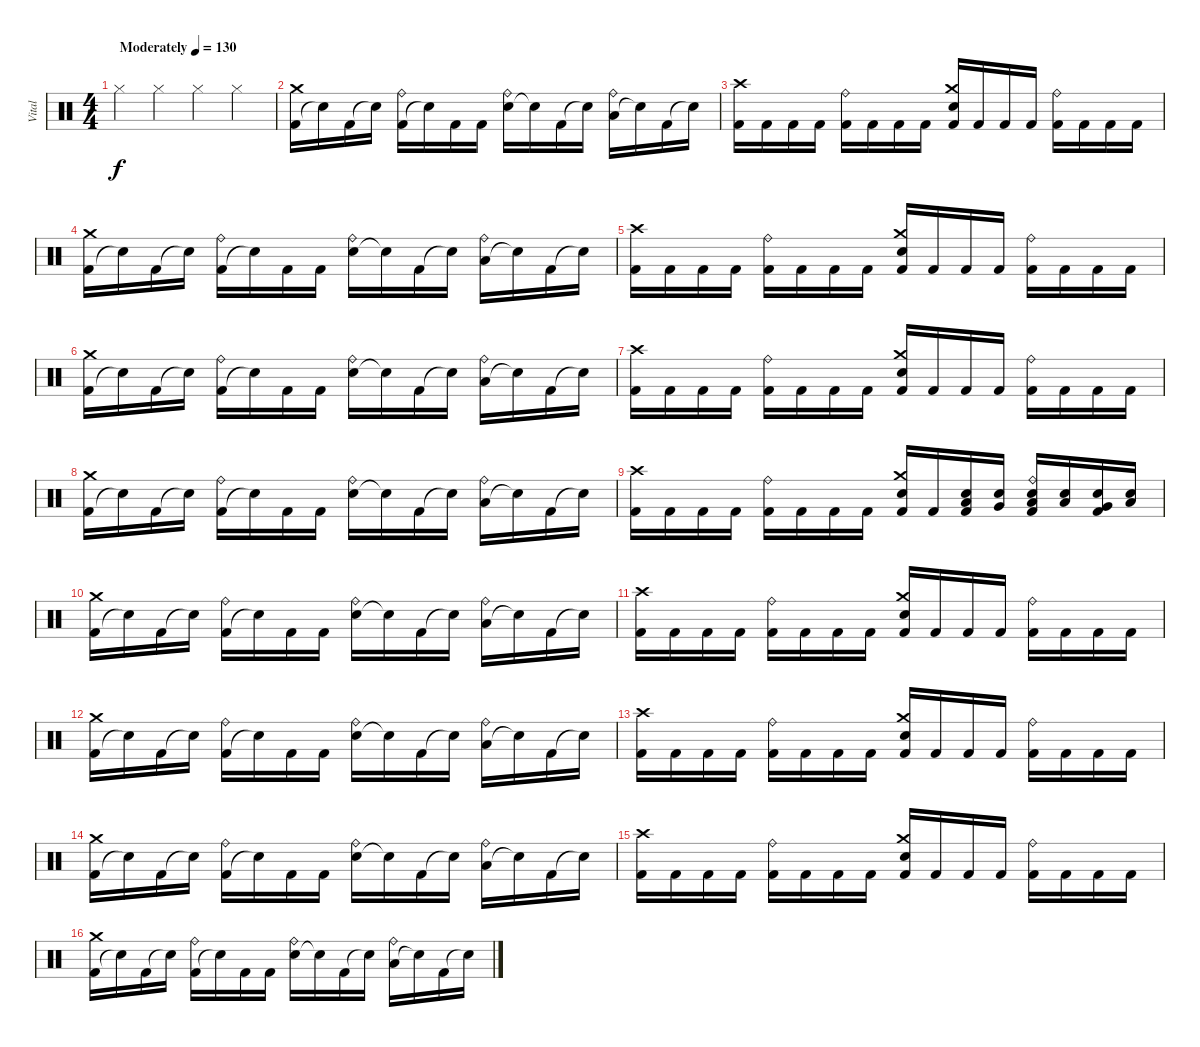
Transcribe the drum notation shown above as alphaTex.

\track ("Vital" "Vital") {instrument percussion}
\staff {score}
\articulation defaults
\ts (4 4)
\tempo (130 "Moderately")
\clef neutral
\ks c "Hi-Hat (closed)".4{dy f} "Hi-Hat (closed)".4 "Hi-Hat (closed)".4 "Hi-Hat (closed)".4
|
("Kick (hit) 2" "Crash medium (hit)").16 "Snare (hit)"{t}.16 "Kick (hit) 2".16 "Snare (hit)"{t}.16 ("Kick (hit) 2" "Ride (bell)").16 "Snare (hit)"{t}.16 "Kick (hit) 2".16 "Kick (hit) 2".16 ("Snare (hit) 2" "Ride (bell)").16 "Snare (hit)"{t}.16 "Kick (hit) 2".16 "Snare (hit)"{t}.16 ("Low Floor Tom (hit)" "Ride (bell)").16 "Snare (hit)"{t}.16 "Kick (hit) 2".16 "Snare (hit)"{t}.16 |
("Kick (hit) 2" "Crash high (hit)").16 "Kick (hit) 2".16 "Kick (hit) 2".16 "Kick (hit) 2".16 ("Kick (hit) 2" "Ride (bell)").16 "Kick (hit) 2".16 "Kick (hit) 2".16 "Kick (hit) 2".16 ("Kick (hit) 2" "Snare (hit) 2" "Crash medium (hit)").16 "Kick (hit) 2".16 "Kick (hit) 2".16 "Kick (hit) 2".16 ("Kick (hit) 2" "Ride (bell)").16 "Kick (hit) 2".16 "Kick (hit) 2".16 "Kick (hit) 2".16 |
("Kick (hit) 2" "Crash medium (hit)").16 "Snare (hit)"{t}.16 "Kick (hit) 2".16 "Snare (hit)"{t}.16 ("Kick (hit) 2" "Ride (bell)").16 "Snare (hit)"{t}.16 "Kick (hit) 2".16 "Kick (hit) 2".16 ("Snare (hit) 2" "Ride (bell)").16 "Snare (hit)"{t}.16 "Kick (hit) 2".16 "Snare (hit)"{t}.16 ("Low Floor Tom (hit)" "Ride (bell)").16 "Snare (hit)"{t}.16 "Kick (hit) 2".16 "Snare (hit)"{t}.16 |
("Kick (hit) 2" "Crash high (hit)").16 "Kick (hit) 2".16 "Kick (hit) 2".16 "Kick (hit) 2".16 ("Kick (hit) 2" "Ride (bell)").16 "Kick (hit) 2".16 "Kick (hit) 2".16 "Kick (hit) 2".16 ("Kick (hit) 2" "Snare (hit) 2" "Crash medium (hit)").16 "Kick (hit) 2".16 "Kick (hit) 2".16 "Kick (hit) 2".16 ("Kick (hit) 2" "Ride (bell)").16 "Kick (hit) 2".16 "Kick (hit) 2".16 "Kick (hit) 2".16 |
("Kick (hit) 2" "Crash medium (hit)").16 "Snare (hit)"{t}.16 "Kick (hit) 2".16 "Snare (hit)"{t}.16 ("Kick (hit) 2" "Ride (bell)").16 "Snare (hit)"{t}.16 "Kick (hit) 2".16 "Kick (hit) 2".16 ("Snare (hit) 2" "Ride (bell)").16 "Snare (hit)"{t}.16 "Kick (hit) 2".16 "Snare (hit)"{t}.16 ("Low Floor Tom (hit)" "Ride (bell)").16 "Snare (hit)"{t}.16 "Kick (hit) 2".16 "Snare (hit)"{t}.16 |
("Kick (hit) 2" "Crash high (hit)").16 "Kick (hit) 2".16 "Kick (hit) 2".16 "Kick (hit) 2".16 ("Kick (hit) 2" "Ride (bell)").16 "Kick (hit) 2".16 "Kick (hit) 2".16 "Kick (hit) 2".16 ("Kick (hit) 2" "Snare (hit) 2" "Crash medium (hit)").16 "Kick (hit) 2".16 "Kick (hit) 2".16 "Kick (hit) 2".16 ("Kick (hit) 2" "Ride (bell)").16 "Kick (hit) 2".16 "Kick (hit) 2".16 "Kick (hit) 2".16 |
("Kick (hit) 2" "Crash medium (hit)").16 "Snare (hit)"{t}.16 "Kick (hit) 2".16 "Snare (hit)"{t}.16 ("Kick (hit) 2" "Ride (bell)").16 "Snare (hit)"{t}.16 "Kick (hit) 2".16 "Kick (hit) 2".16 ("Snare (hit) 2" "Ride (bell)").16 "Snare (hit)"{t}.16 "Kick (hit) 2".16 "Snare (hit)"{t}.16 ("Low Floor Tom (hit)" "Ride (bell)").16 "Snare (hit)"{t}.16 "Kick (hit) 2".16 "Snare (hit)"{t}.16 |
("Kick (hit) 2" "Crash high (hit)").16 "Kick (hit) 2".16 "Kick (hit) 2".16 "Kick (hit) 2".16 ("Kick (hit) 2" "Ride (bell)").16 "Kick (hit) 2".16 "Kick (hit) 2".16 "Kick (hit) 2".16 ("Kick (hit) 2" "Snare (hit) 2" "Crash medium (hit)").16 "Kick (hit) 2".16 ("Low Tom (hit)" "Kick (hit) 2" "Snare (hit) 2").16 ("Very Low Tom (hit)" "Snare (hit) 2").16 ("Low Tom (hit)" "Kick (hit) 2" "Snare (hit) 2" "Ride (bell)").16 ("Low Floor Tom (hit)" "Snare (hit) 2").16 ("Very Low Tom (hit)" "Kick (hit) 2" "Snare (hit) 2").16 ("Low Floor Tom (hit)" "Snare (hit) 2").16 |
("Kick (hit) 2" "Crash medium (hit)").16 "Snare (hit)"{t}.16 "Kick (hit) 2".16 "Snare (hit)"{t}.16 ("Kick (hit) 2" "Ride (bell)").16 "Snare (hit)"{t}.16 "Kick (hit) 2".16 "Kick (hit) 2".16 ("Snare (hit) 2" "Ride (bell)").16 "Snare (hit)"{t}.16 "Kick (hit) 2".16 "Snare (hit)"{t}.16 ("Low Floor Tom (hit)" "Ride (bell)").16 "Snare (hit)"{t}.16 "Kick (hit) 2".16 "Snare (hit)"{t}.16 |
("Kick (hit) 2" "Crash high (hit)").16 "Kick (hit) 2".16 "Kick (hit) 2".16 "Kick (hit) 2".16 ("Kick (hit) 2" "Ride (bell)").16 "Kick (hit) 2".16 "Kick (hit) 2".16 "Kick (hit) 2".16 ("Kick (hit) 2" "Snare (hit) 2" "Crash medium (hit)").16 "Kick (hit) 2".16 "Kick (hit) 2".16 "Kick (hit) 2".16 ("Kick (hit) 2" "Ride (bell)").16 "Kick (hit) 2".16 "Kick (hit) 2".16 "Kick (hit) 2".16 |
("Kick (hit) 2" "Crash medium (hit)").16 "Snare (hit)"{t}.16 "Kick (hit) 2".16 "Snare (hit)"{t}.16 ("Kick (hit) 2" "Ride (bell)").16 "Snare (hit)"{t}.16 "Kick (hit) 2".16 "Kick (hit) 2".16 ("Snare (hit) 2" "Ride (bell)").16 "Snare (hit)"{t}.16 "Kick (hit) 2".16 "Snare (hit)"{t}.16 ("Low Floor Tom (hit)" "Ride (bell)").16 "Snare (hit)"{t}.16 "Kick (hit) 2".16 "Snare (hit)"{t}.16 |
("Kick (hit) 2" "Crash high (hit)").16 "Kick (hit) 2".16 "Kick (hit) 2".16 "Kick (hit) 2".16 ("Kick (hit) 2" "Ride (bell)").16 "Kick (hit) 2".16 "Kick (hit) 2".16 "Kick (hit) 2".16 ("Kick (hit) 2" "Snare (hit) 2" "Crash medium (hit)").16 "Kick (hit) 2".16 "Kick (hit) 2".16 "Kick (hit) 2".16 ("Kick (hit) 2" "Ride (bell)").16 "Kick (hit) 2".16 "Kick (hit) 2".16 "Kick (hit) 2".16 |
("Kick (hit) 2" "Crash medium (hit)").16 "Snare (hit)"{t}.16 "Kick (hit) 2".16 "Snare (hit)"{t}.16 ("Kick (hit) 2" "Ride (bell)").16 "Snare (hit)"{t}.16 "Kick (hit) 2".16 "Kick (hit) 2".16 ("Snare (hit) 2" "Ride (bell)").16 "Snare (hit)"{t}.16 "Kick (hit) 2".16 "Snare (hit)"{t}.16 ("Low Floor Tom (hit)" "Ride (bell)").16 "Snare (hit)"{t}.16 "Kick (hit) 2".16 "Snare (hit)"{t}.16 |
("Kick (hit) 2" "Crash high (hit)").16 "Kick (hit) 2".16 "Kick (hit) 2".16 "Kick (hit) 2".16 ("Kick (hit) 2" "Ride (bell)").16 "Kick (hit) 2".16 "Kick (hit) 2".16 "Kick (hit) 2".16 ("Kick (hit) 2" "Snare (hit) 2" "Crash medium (hit)").16 "Kick (hit) 2".16 "Kick (hit) 2".16 "Kick (hit) 2".16 ("Kick (hit) 2" "Ride (bell)").16 "Kick (hit) 2".16 "Kick (hit) 2".16 "Kick (hit) 2".16 |
("Kick (hit) 2" "Crash medium (hit)").16 "Snare (hit)"{t}.16 "Kick (hit) 2".16 "Snare (hit)"{t}.16 ("Kick (hit) 2" "Ride (bell)").16 "Snare (hit)"{t}.16 "Kick (hit) 2".16 "Kick (hit) 2".16 ("Snare (hit) 2" "Ride (bell)").16 "Snare (hit)"{t}.16 "Kick (hit) 2".16 "Snare (hit)"{t}.16 ("Low Floor Tom (hit)" "Ride (bell)").16 "Snare (hit)"{t}.16 "Kick (hit) 2".16 "Snare (hit)"{t}.16
